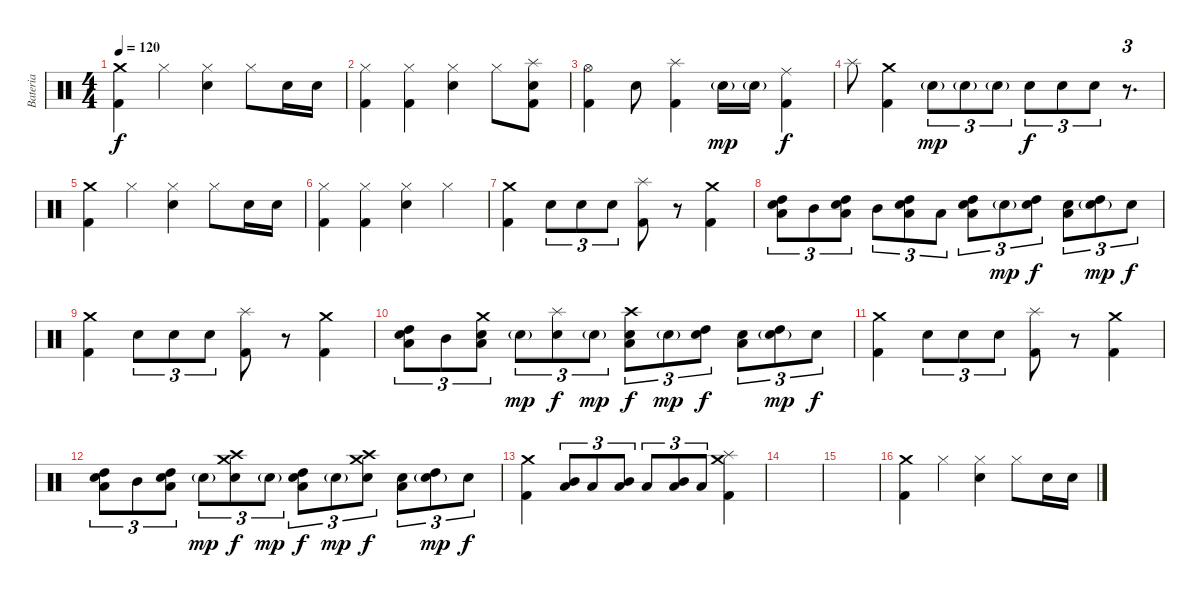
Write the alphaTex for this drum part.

\track ("Bateria" "Bateria") {instrument percussion}
\staff
\articulation defaults
\ts (4 4)
\tempo 120
\clef neutral
\ks c
("Crash medium (hit)" "Kick (hit) 2").4{dy f} "Hi-Hat (closed)".4 ("Hi-Hat (closed)" "Electric Snare (hit)").4 "Hi-Hat (closed)".8 "Electric Snare (hit)".16 "Electric Snare (hit)".16 |
("Hi-Hat (closed)" "Kick (hit) 2").4 ("Hi-Hat (closed)" "Kick (hit) 2").4 ("Hi-Hat (closed)" "Electric Snare (hit)").4 "Hi-Hat (closed)".8 ("Splash (hit)" "Electric Snare (hit)" "Kick (hit) 2").8 |
("Hi-Hat (open)" "Kick (hit) 2").4 "Electric Snare (hit)".8 ("Splash (hit)" "Kick (hit) 2").4 "Electric Snare (hit)"{g}.16{dy mp} "Electric Snare (hit)"{g}.16 ("Ride (middle)" "Kick (hit) 2").4{dy f} |
"Splash (hit)".8 ("Crash medium (hit)" "Kick (hit) 2").4 "Electric Snare (hit)"{g}.8{tu (3 2) dy mp} "Electric Snare (hit)"{g}.8{tu (3 2)} "Electric Snare (hit)"{g}.8{tu (3 2)} "Electric Snare (hit)".8{tu (3 2) dy f} "Electric Snare (hit)".8{tu (3 2)} "Electric Snare (hit)".8{tu (3 2)} r.8{d tu (3 2)} |
("Crash medium (hit)" "Kick (hit) 2").4 "Hi-Hat (closed)".4 ("Hi-Hat (closed)" "Electric Snare (hit)").4 "Hi-Hat (closed)".8 "Electric Snare (hit)".16 "Electric Snare (hit)".16 |
("Hi-Hat (closed)" "Kick (hit) 2").4 ("Hi-Hat (closed)" "Kick (hit) 2").4 ("Hi-Hat (closed)" "Electric Snare (hit)").4 "Hi-Hat (closed)".4 |
("Crash medium (hit)" "Kick (hit) 2").4 "Electric Snare (hit)".8{tu (3 2)} "Electric Snare (hit)".8{tu (3 2)} "Electric Snare (hit)".8{tu (3 2)} ("Splash (hit)" "Kick (hit) 2").8 r.8 ("Crash medium (hit)" "Kick (hit) 2").4 |
("High Tom (hit)" "Low Tom (hit)" "Electric Snare (hit)").8{tu (3 2)} "Mid Tom (hit)".8{tu (3 2)} ("High Tom (hit)" "Low Tom (hit)" "Electric Snare (hit)").8{tu (3 2)} "Mid Tom (hit)".8{tu (3 2)} ("High Tom (hit)" "Low Tom (hit)" "Electric Snare (hit)").8{tu (3 2)} "Low Tom (hit)".8{tu (3 2)} ("High Tom (hit)" "Electric Snare (hit)" "Low Tom (hit)").8{tu (3 2)} "Electric Snare (hit)"{g}.8{tu (3 2) dy mp} ("High Tom (hit)" "Electric Snare (hit)").8{tu (3 2) dy f} ("Electric Snare (hit)" "Low Tom (hit)").8{tu (3 2)} ("High Tom (hit)" "Electric Snare (hit)"{g}).8{tu (3 2) dy mp} "Electric Snare (hit)".8{tu (3 2) dy f} |
("Crash medium (hit)" "Kick (hit) 2").4 "Electric Snare (hit)".8{tu (3 2)} "Electric Snare (hit)".8{tu (3 2)} "Electric Snare (hit)".8{tu (3 2)} ("Splash (hit)" "Kick (hit) 2").8 r.8 ("Crash medium (hit)" "Kick (hit) 2").4 |
("High Tom (hit)" "Low Tom (hit)" "Electric Snare (hit)").8{tu (3 2)} "Mid Tom (hit)".8{tu (3 2)} ("Crash medium (hit)" "Low Tom (hit)" "Electric Snare (hit)").8{tu (3 2)} "Electric Snare (hit)"{g}.8{tu (3 2) dy mp} ("Splash (hit)" "Electric Snare (hit)").8{tu (3 2) dy f} "Electric Snare (hit)"{g}.8{tu (3 2) dy mp} ("Crash high (hit)" "Electric Snare (hit)" "Low Tom (hit)").8{tu (3 2) dy f} "Electric Snare (hit)"{g}.8{tu (3 2) dy mp} ("High Tom (hit)" "Electric Snare (hit)").8{tu (3 2) dy f} ("Electric Snare (hit)" "Low Tom (hit)").8{tu (3 2)} ("High Tom (hit)" "Electric Snare (hit)"{g}).8{tu (3 2) dy mp} "Electric Snare (hit)".8{tu (3 2) dy f} |
("Crash medium (hit)" "Kick (hit) 2").4 "Electric Snare (hit)".8{tu (3 2)} "Electric Snare (hit)".8{tu (3 2)} "Electric Snare (hit)".8{tu (3 2)} ("Splash (hit)" "Kick (hit) 2").8 r.8 ("Crash medium (hit)" "Kick (hit) 2").4 |
("High Tom (hit)" "Low Tom (hit)" "Electric Snare (hit)").8{tu (3 2)} "Mid Tom (hit)".8{tu (3 2)} ("High Tom (hit)" "Low Tom (hit)" "Electric Snare (hit)").8{tu (3 2)} "Electric Snare (hit)"{g}.8{tu (3 2) dy mp} ("Crash high (hit)" "Crash medium (hit)" "Electric Snare (hit)").8{tu (3 2) dy f} "Electric Snare (hit)"{g}.8{tu (3 2) dy mp} ("High Tom (hit)" "Electric Snare (hit)" "Low Tom (hit)").8{tu (3 2) dy f} "Electric Snare (hit)"{g}.8{tu (3 2) dy mp} ("Crash high (hit)" "Crash medium (hit)" "Electric Snare (hit)").8{tu (3 2) dy f} ("Electric Snare (hit)" "Low Tom (hit)").8{tu (3 2)} ("High Tom (hit)" "Electric Snare (hit)"{g}).8{tu (3 2) dy mp} "Electric Snare (hit)".8{tu (3 2) dy f} |
("Crash medium (hit)" "Kick (hit) 2").4 ("Mid Tom (hit)" "Low Tom (hit)").8{tu (3 2)} "Low Tom (hit)".8{tu (3 2)} ("Mid Tom (hit)" "Low Tom (hit)").8{tu (3 2)} "Low Tom (hit)".8{tu (3 2)} ("Mid Tom (hit)" "Low Tom (hit)").8{tu (3 2)} "Low Tom (hit)".8{tu (3 2)} ("Crash medium (hit)" "Splash (hit)" "Kick (hit) 2").4 |
|
|
("Crash medium (hit)" "Kick (hit) 2").4 "Hi-Hat (closed)".4 ("Hi-Hat (closed)" "Electric Snare (hit)").4 "Hi-Hat (closed)".8 "Electric Snare (hit)".16 "Electric Snare (hit)".16
